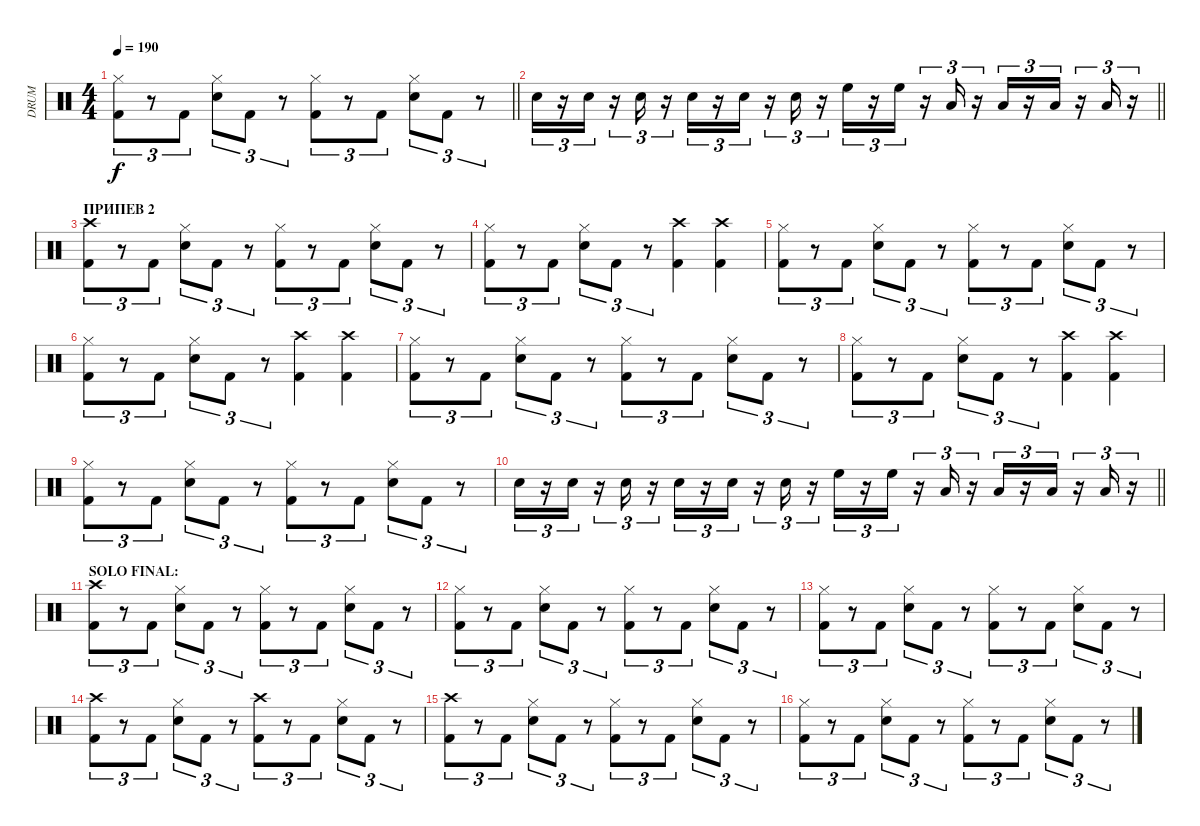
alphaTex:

\track ("DRUM" "DRUM") {instrument percussion bank 127}
\staff {score}
\articulation defaults
\ts (4 4)
\tempo 190
\clef neutral
\barLineRight lightlight
\ks c
("Hi-Hat (closed)" "Kick (hit) 2").8{tu (3 2) dy f} r.8{tu (3 2)} "Kick (hit) 2".8{tu (3 2)} ("Hi-Hat (closed)" "Electric Snare (hit)").8{tu (3 2)} "Kick (hit) 2".8{tu (3 2)} r.8{tu (3 2)} ("Hi-Hat (closed)" "Kick (hit) 2").8{tu (3 2)} r.8{tu (3 2)} "Kick (hit) 2".8{tu (3 2)} ("Hi-Hat (closed)" "Electric Snare (hit)").8{tu (3 2)} "Kick (hit) 2".8{tu (3 2)} r.8{tu (3 2)} |
\barLineRight lightlight "Electric Snare (hit)".16{tu (3 2)}
r.16{tu (3 2)} "Electric Snare (hit)".16{tu (3 2)} r.16{tu (3 2)} "Electric Snare (hit)".16{tu (3 2)} r.16{tu (3 2)} "Electric Snare (hit)".16{tu (3 2)} r.16{tu (3 2)} "Electric Snare (hit)".16{tu (3 2)} r.16{tu (3 2)} "Electric Snare (hit)".16{tu (3 2)} r.16{tu (3 2)} "High Floor Tom (hit)".16{tu (3 2)} r.16{tu (3 2)} "High Floor Tom (hit)".16{tu (3 2)} r.16{tu (3 2)} "Low Tom (hit)".16{tu (3 2)} r.16{tu (3 2)} "Low Tom (hit)".16{tu (3 2)} r.16{tu (3 2)} "Low Tom (hit)".16{tu (3 2)} r.16{tu (3 2)} "Low Tom (hit)".16{tu (3 2)} r.16{tu (3 2)} |
\section ("" "ПРИПЕВ 2")
("Crash high (hit)" "Kick (hit) 2").8{tu (3 2)} r.8{tu (3 2)} "Kick (hit) 2".8{tu (3 2)} ("Hi-Hat (closed)" "Electric Snare (hit)").8{tu (3 2)} "Kick (hit) 2".8{tu (3 2)} r.8{tu (3 2)} ("Hi-Hat (closed)" "Kick (hit) 2").8{tu (3 2)} r.8{tu (3 2)} "Kick (hit) 2".8{tu (3 2)} ("Hi-Hat (closed)" "Electric Snare (hit)").8{tu (3 2)} "Kick (hit) 2".8{tu (3 2)} r.8{tu (3 2)} |
("Hi-Hat (closed)" "Kick (hit) 2").8{tu (3 2)} r.8{tu (3 2)} "Kick (hit) 2".8{tu (3 2)} ("Hi-Hat (closed)" "Electric Snare (hit)").8{tu (3 2)} "Kick (hit) 2".8{tu (3 2)} r.8{tu (3 2)} ("Crash high (hit)" "Kick (hit) 2").4 ("Crash high (hit)" "Kick (hit) 2").4 |
("Hi-Hat (closed)" "Kick (hit) 2").8{tu (3 2)} r.8{tu (3 2)} "Kick (hit) 2".8{tu (3 2)} ("Hi-Hat (closed)" "Electric Snare (hit)").8{tu (3 2)} "Kick (hit) 2".8{tu (3 2)} r.8{tu (3 2)} ("Hi-Hat (closed)" "Kick (hit) 2").8{tu (3 2)} r.8{tu (3 2)} "Kick (hit) 2".8{tu (3 2)} ("Hi-Hat (closed)" "Electric Snare (hit)").8{tu (3 2)} "Kick (hit) 2".8{tu (3 2)} r.8{tu (3 2)} |
("Hi-Hat (closed)" "Kick (hit) 2").8{tu (3 2)} r.8{tu (3 2)} "Kick (hit) 2".8{tu (3 2)} ("Hi-Hat (closed)" "Electric Snare (hit)").8{tu (3 2)} "Kick (hit) 2".8{tu (3 2)} r.8{tu (3 2)} ("Crash high (hit)" "Kick (hit) 2").4 ("Crash high (hit)" "Kick (hit) 2").4 |
("Hi-Hat (closed)" "Kick (hit) 2").8{tu (3 2)} r.8{tu (3 2)} "Kick (hit) 2".8{tu (3 2)} ("Hi-Hat (closed)" "Electric Snare (hit)").8{tu (3 2)} "Kick (hit) 2".8{tu (3 2)} r.8{tu (3 2)} ("Hi-Hat (closed)" "Kick (hit) 2").8{tu (3 2)} r.8{tu (3 2)} "Kick (hit) 2".8{tu (3 2)} ("Hi-Hat (closed)" "Electric Snare (hit)").8{tu (3 2)} "Kick (hit) 2".8{tu (3 2)} r.8{tu (3 2)} |
("Hi-Hat (closed)" "Kick (hit) 2").8{tu (3 2)} r.8{tu (3 2)} "Kick (hit) 2".8{tu (3 2)} ("Hi-Hat (closed)" "Electric Snare (hit)").8{tu (3 2)} "Kick (hit) 2".8{tu (3 2)} r.8{tu (3 2)} ("Crash high (hit)" "Kick (hit) 2").4 ("Crash high (hit)" "Kick (hit) 2").4 |
("Hi-Hat (closed)" "Kick (hit) 2").8{tu (3 2)} r.8{tu (3 2)} "Kick (hit) 2".8{tu (3 2)} ("Hi-Hat (closed)" "Electric Snare (hit)").8{tu (3 2)} "Kick (hit) 2".8{tu (3 2)} r.8{tu (3 2)} ("Hi-Hat (closed)" "Kick (hit) 2").8{tu (3 2)} r.8{tu (3 2)} "Kick (hit) 2".8{tu (3 2)} ("Hi-Hat (closed)" "Electric Snare (hit)").8{tu (3 2)} "Kick (hit) 2".8{tu (3 2)} r.8{tu (3 2)} |
\barLineRight lightlight "Electric Snare (hit)".16{tu (3 2)}
r.16{tu (3 2)} "Electric Snare (hit)".16{tu (3 2)} r.16{tu (3 2)} "Electric Snare (hit)".16{tu (3 2)} r.16{tu (3 2)} "Electric Snare (hit)".16{tu (3 2)} r.16{tu (3 2)} "Electric Snare (hit)".16{tu (3 2)} r.16{tu (3 2)} "Electric Snare (hit)".16{tu (3 2)} r.16{tu (3 2)} "High Floor Tom (hit)".16{tu (3 2)} r.16{tu (3 2)} "High Floor Tom (hit)".16{tu (3 2)} r.16{tu (3 2)} "Low Tom (hit)".16{tu (3 2)} r.16{tu (3 2)} "Low Tom (hit)".16{tu (3 2)} r.16{tu (3 2)} "Low Tom (hit)".16{tu (3 2)} r.16{tu (3 2)} "Low Tom (hit)".16{tu (3 2)} r.16{tu (3 2)} |
\section ("" "SOLO FINAL:")
("Crash high (hit)" "Kick (hit) 2").8{tu (3 2)} r.8{tu (3 2)} "Kick (hit) 2".8{tu (3 2)} ("Hi-Hat (closed)" "Electric Snare (hit)").8{tu (3 2)} "Kick (hit) 2".8{tu (3 2)} r.8{tu (3 2)} ("Hi-Hat (closed)" "Kick (hit) 2").8{tu (3 2)} r.8{tu (3 2)} "Kick (hit) 2".8{tu (3 2)} ("Hi-Hat (closed)" "Electric Snare (hit)").8{tu (3 2)} "Kick (hit) 2".8{tu (3 2)} r.8{tu (3 2)} |
("Hi-Hat (closed)" "Kick (hit) 2").8{tu (3 2)} r.8{tu (3 2)} "Kick (hit) 2".8{tu (3 2)} ("Hi-Hat (closed)" "Electric Snare (hit)").8{tu (3 2)} "Kick (hit) 2".8{tu (3 2)} r.8{tu (3 2)} ("Hi-Hat (closed)" "Kick (hit) 2").8{tu (3 2)} r.8{tu (3 2)} "Kick (hit) 2".8{tu (3 2)} ("Hi-Hat (closed)" "Electric Snare (hit)").8{tu (3 2)} "Kick (hit) 2".8{tu (3 2)} r.8{tu (3 2)} |
("Hi-Hat (closed)" "Kick (hit) 2").8{tu (3 2)} r.8{tu (3 2)} "Kick (hit) 2".8{tu (3 2)} ("Hi-Hat (closed)" "Electric Snare (hit)").8{tu (3 2)} "Kick (hit) 2".8{tu (3 2)} r.8{tu (3 2)} ("Hi-Hat (closed)" "Kick (hit) 2").8{tu (3 2)} r.8{tu (3 2)} "Kick (hit) 2".8{tu (3 2)} ("Hi-Hat (closed)" "Electric Snare (hit)").8{tu (3 2)} "Kick (hit) 2".8{tu (3 2)} r.8{tu (3 2)} |
("Crash high (hit)" "Kick (hit) 2").8{tu (3 2)} r.8{tu (3 2)} "Kick (hit) 2".8{tu (3 2)} ("Hi-Hat (closed)" "Electric Snare (hit)").8{tu (3 2)} "Kick (hit) 2".8{tu (3 2)} r.8{tu (3 2)} ("Crash high (hit)" "Kick (hit) 2").8{tu (3 2)} r.8{tu (3 2)} "Kick (hit) 2".8{tu (3 2)} ("Hi-Hat (closed)" "Electric Snare (hit)").8{tu (3 2)} "Kick (hit) 2".8{tu (3 2)} r.8{tu (3 2)} |
("Crash high (hit)" "Kick (hit) 2").8{tu (3 2)} r.8{tu (3 2)} "Kick (hit) 2".8{tu (3 2)} ("Hi-Hat (closed)" "Electric Snare (hit)").8{tu (3 2)} "Kick (hit) 2".8{tu (3 2)} r.8{tu (3 2)} ("Hi-Hat (closed)" "Kick (hit) 2").8{tu (3 2)} r.8{tu (3 2)} "Kick (hit) 2".8{tu (3 2)} ("Hi-Hat (closed)" "Electric Snare (hit)").8{tu (3 2)} "Kick (hit) 2".8{tu (3 2)} r.8{tu (3 2)} |
("Hi-Hat (closed)" "Kick (hit) 2").8{tu (3 2)} r.8{tu (3 2)} "Kick (hit) 2".8{tu (3 2)} ("Hi-Hat (closed)" "Electric Snare (hit)").8{tu (3 2)} "Kick (hit) 2".8{tu (3 2)} r.8{tu (3 2)} ("Hi-Hat (closed)" "Kick (hit) 2").8{tu (3 2)} r.8{tu (3 2)} "Kick (hit) 2".8{tu (3 2)} ("Hi-Hat (closed)" "Electric Snare (hit)").8{tu (3 2)} "Kick (hit) 2".8{tu (3 2)} r.8{tu (3 2)}
